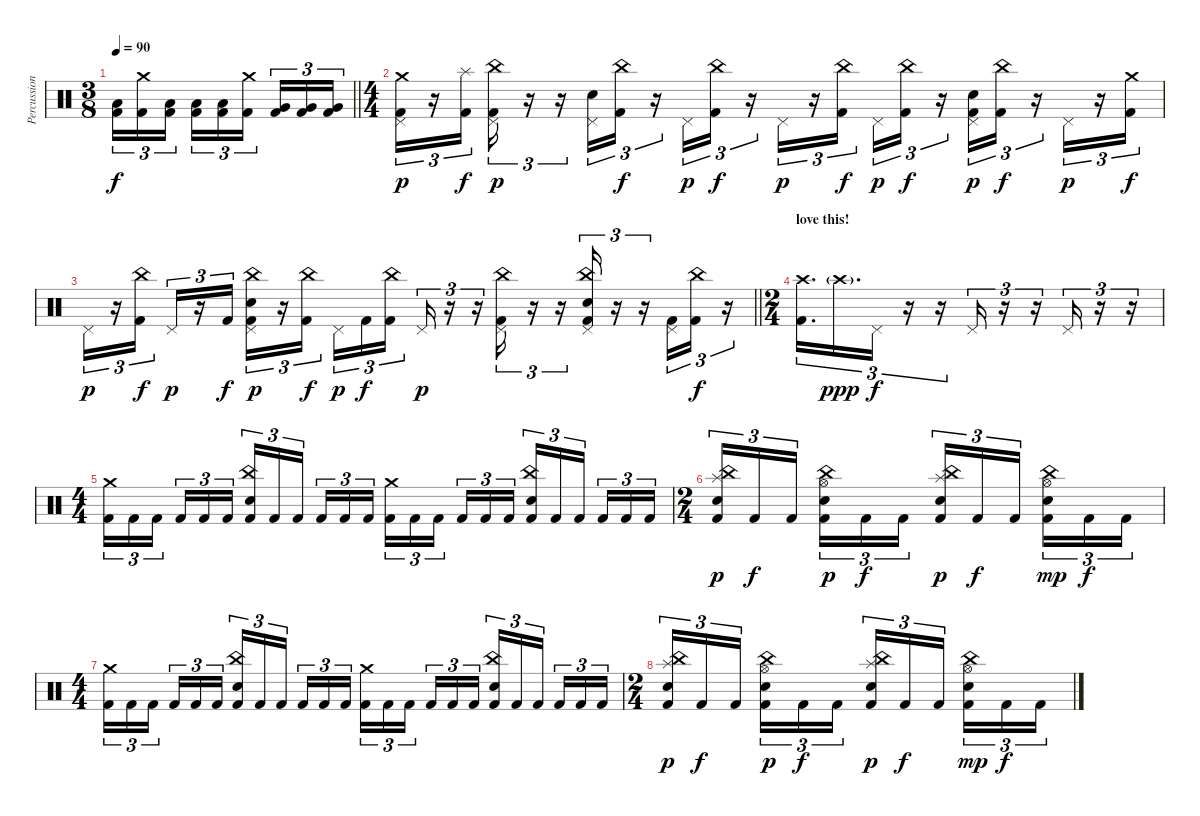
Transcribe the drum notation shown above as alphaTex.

\track ("Percussion" "Percussion") {instrument percussion}
\staff {score}
\articulation defaults
\ts (3 8)
\tempo 90
\clef neutral
\barLineRight lightlight
\ks c
("Low Tom (hit)" "Kick (hit) 2").16{tu (3 2) dy f} ("Crash medium (hit)" "Kick (hit) 2").16{tu (3 2)} ("Low Tom (hit)" "Kick (hit) 2").16{tu (3 2)} ("Low Tom (hit)" "Kick (hit) 2").16{tu (3 2)} ("Low Tom (hit)" "Kick (hit) 2").16{tu (3 2)} ("Crash medium (hit)" "Kick (hit) 2").16{tu (3 2)} ("Very Low Tom (hit)" "Kick (hit) 2").16{tu (3 2)} ("Very Low Tom (hit)" "Kick (hit) 2").16{tu (3 2)} ("Very Low Tom (hit)" "Kick (hit) 2").16{tu (3 2)} |
\ts (4 4)
("Crash medium (hit)" "Pedal Hi-Hat (hit)" "Kick (hit) 2").16{tu (3 2) dy p} r.16{tu (3 2)} ("Splash (hit)" "Kick (hit) 2").16{tu (3 2) dy f} ("China (hit)" "Pedal Hi-Hat (hit)" "Kick (hit) 2").16{tu (3 2) dy p} r.16{tu (3 2)} r.16{tu (3 2)} ("Pedal Hi-Hat (hit)" "Electric Snare (hit)").16{tu (3 2)} ("China (hit)" "Kick (hit) 2").16{tu (3 2) dy f} r.16{tu (3 2)} "Pedal Hi-Hat (hit)".16{tu (3 2) dy p} ("China (hit)" "Kick (hit) 2").16{tu (3 2) dy f} r.16{tu (3 2)} "Pedal Hi-Hat (hit)".16{tu (3 2) dy p} r.16{tu (3 2)} ("China (hit)" "Kick (hit) 2").16{tu (3 2) dy f beam splitsecondary} "Pedal Hi-Hat (hit)".16{tu (3 2) dy p} ("China (hit)" "Kick (hit) 2").16{tu (3 2) dy f} r.16{tu (3 2)} ("Pedal Hi-Hat (hit)" "Electric Snare (hit)" "Kick (hit) 2").16{tu (3 2) dy p} ("China (hit)" "Kick (hit) 2").16{tu (3 2) dy f} r.16{tu (3 2)} "Pedal Hi-Hat (hit)".16{tu (3 2) dy p} r.16{tu (3 2)} ("Crash medium (hit)" "Kick (hit) 2").16{tu (3 2) dy f} |
\barLineRight lightlight "Pedal Hi-Hat (hit)".16{tu (3 2) dy p}
r.16{tu (3 2)} ("China (hit)" "Kick (hit) 2").16{tu (3 2) dy f} "Pedal Hi-Hat (hit)".16{tu (3 2) dy p} r.16{tu (3 2)} "Kick (hit) 2".16{tu (3 2) dy f} ("China (hit)" "Pedal Hi-Hat (hit)" "Electric Snare (hit)" "Kick (hit) 2").16{tu (3 2) dy p} r.16{tu (3 2)} ("China (hit)" "Kick (hit) 2").16{tu (3 2) dy f beam splitsecondary} "Pedal Hi-Hat (hit)".16{tu (3 2) dy p} "Kick (hit) 2".16{tu (3 2) dy f} ("China (hit)" "Kick (hit) 2").16{tu (3 2)} "Pedal Hi-Hat (hit)".16{tu (3 2) dy p} r.16{tu (3 2)} r.16{tu (3 2)} ("China (hit)" "Pedal Hi-Hat (hit)" "Kick (hit) 2").16{tu (3 2)} r.16{tu (3 2)} r.16{tu (3 2)} ("China (hit)" "Pedal Hi-Hat (hit)" "Electric Snare (hit)" "Kick (hit) 2").16{tu (3 2)} r.16{tu (3 2)} r.16{tu (3 2)} ("Pedal Hi-Hat (hit)" "Kick (hit) 2").16{tu (3 2)} ("China (hit)" "Kick (hit) 2").16{tu (3 2) dy f} r.16{tu (3 2)} |
\ts (2 4)
\section ("" "love this!")
("Crash high (hit)" "Kick (hit) 2").16{d tu (3 2)} "Crash high (hit)"{g}.16{d tu (3 2) dy ppp} "Pedal Hi-Hat (hit)".16{tu (3 2) dy f} r.16{tu (3 2)} r.16{tu (3 2)} "Pedal Hi-Hat (hit)".16{tu (3 2)} r.16{tu (3 2)} r.16{tu (3 2)} "Pedal Hi-Hat (hit)".16{tu (3 2)} r.16{tu (3 2)} r.16{tu (3 2)} |
\ts (4 4)
("Crash medium (hit)" "Kick (hit) 2").16{tu (3 2)} "Kick (hit) 2".16{tu (3 2)} "Kick (hit) 2".16{tu (3 2) beam splitsecondary} "Kick (hit) 2".16{tu (3 2)} "Kick (hit) 2".16{tu (3 2)} "Kick (hit) 2".16{tu (3 2)} ("China (hit)" "Electric Snare (hit)" "Kick (hit) 2").16{tu (3 2)} "Kick (hit) 2".16{tu (3 2)} "Kick (hit) 2".16{tu (3 2) beam splitsecondary} "Kick (hit) 2".16{tu (3 2)} "Kick (hit) 2".16{tu (3 2)} "Kick (hit) 2".16{tu (3 2)} ("Crash medium (hit)" "Kick (hit) 2").16{tu (3 2)} "Kick (hit) 2".16{tu (3 2)} "Kick (hit) 2".16{tu (3 2) beam splitsecondary} "Kick (hit) 2".16{tu (3 2)} "Kick (hit) 2".16{tu (3 2)} "Kick (hit) 2".16{tu (3 2)} ("China (hit)" "Electric Snare (hit)" "Kick (hit) 2").16{tu (3 2)} "Kick (hit) 2".16{tu (3 2)} "Kick (hit) 2".16{tu (3 2) beam splitsecondary} "Kick (hit) 2".16{tu (3 2)} "Kick (hit) 2".16{tu (3 2)} "Kick (hit) 2".16{tu (3 2)} |
\ts (2 4)
("China (hit)" "Splash (hit)" "Electric Snare (hit)" "Kick (hit) 2").16{tu (3 2) dy p} "Kick (hit) 2".16{tu (3 2) dy f} "Kick (hit) 2".16{tu (3 2) beam splitsecondary} ("China (hit)" "Hi-Hat (open)" "Electric Snare (hit)" "Kick (hit) 2").16{tu (3 2) dy p} "Kick (hit) 2".16{tu (3 2) dy f} "Kick (hit) 2".16{tu (3 2)} ("China (hit)" "Splash (hit)" "Electric Snare (hit)" "Kick (hit) 2").16{tu (3 2) dy p} "Kick (hit) 2".16{tu (3 2) dy f} "Kick (hit) 2".16{tu (3 2) beam splitsecondary} ("China (hit)" "Hi-Hat (open)" "Electric Snare (hit)" "Kick (hit) 2").16{tu (3 2) dy mp} "Kick (hit) 2".16{tu (3 2) dy f} "Kick (hit) 2".16{tu (3 2)} |
\ts (4 4)
("Crash medium (hit)" "Kick (hit) 2").16{tu (3 2)} "Kick (hit) 2".16{tu (3 2)} "Kick (hit) 2".16{tu (3 2) beam splitsecondary} "Kick (hit) 2".16{tu (3 2)} "Kick (hit) 2".16{tu (3 2)} "Kick (hit) 2".16{tu (3 2)} ("China (hit)" "Electric Snare (hit)" "Kick (hit) 2").16{tu (3 2)} "Kick (hit) 2".16{tu (3 2)} "Kick (hit) 2".16{tu (3 2) beam splitsecondary} "Kick (hit) 2".16{tu (3 2)} "Kick (hit) 2".16{tu (3 2)} "Kick (hit) 2".16{tu (3 2)} ("Crash medium (hit)" "Kick (hit) 2").16{tu (3 2)} "Kick (hit) 2".16{tu (3 2)} "Kick (hit) 2".16{tu (3 2) beam splitsecondary} "Kick (hit) 2".16{tu (3 2)} "Kick (hit) 2".16{tu (3 2)} "Kick (hit) 2".16{tu (3 2)} ("China (hit)" "Electric Snare (hit)" "Kick (hit) 2").16{tu (3 2)} "Kick (hit) 2".16{tu (3 2)} "Kick (hit) 2".16{tu (3 2) beam splitsecondary} "Kick (hit) 2".16{tu (3 2)} "Kick (hit) 2".16{tu (3 2)} "Kick (hit) 2".16{tu (3 2)} |
\ts (2 4)
("China (hit)" "Splash (hit)" "Electric Snare (hit)" "Kick (hit) 2").16{tu (3 2) dy p} "Kick (hit) 2".16{tu (3 2) dy f} "Kick (hit) 2".16{tu (3 2) beam splitsecondary} ("China (hit)" "Hi-Hat (open)" "Electric Snare (hit)" "Kick (hit) 2").16{tu (3 2) dy p} "Kick (hit) 2".16{tu (3 2) dy f} "Kick (hit) 2".16{tu (3 2)} ("China (hit)" "Splash (hit)" "Electric Snare (hit)" "Kick (hit) 2").16{tu (3 2) dy p} "Kick (hit) 2".16{tu (3 2) dy f} "Kick (hit) 2".16{tu (3 2) beam splitsecondary} ("China (hit)" "Hi-Hat (open)" "Electric Snare (hit)" "Kick (hit) 2").16{tu (3 2) dy mp} "Kick (hit) 2".16{tu (3 2) dy f} "Kick (hit) 2".16{tu (3 2)}
